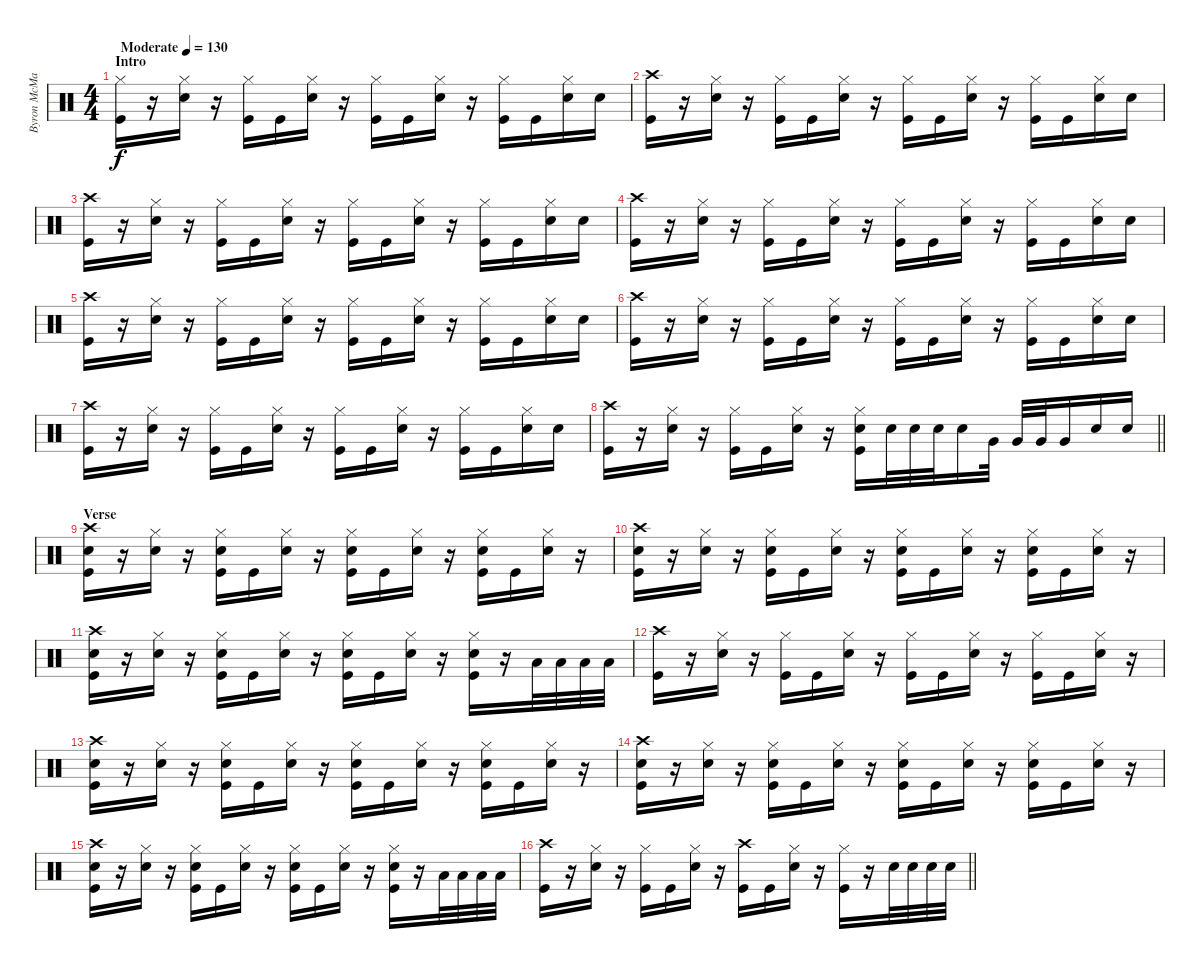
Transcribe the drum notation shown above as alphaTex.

\track ("Byron McMackin" "Byron McMa") {instrument percussion}
\staff {score}
\articulation defaults
\ts (4 4)
\section ("" "Intro")
\tempo (130 "Moderate")
\clef neutral
\ks c
("Hi-Hat (closed)" "Kick (hit)").16{dy f} r.16 ("Hi-Hat (closed)" "Electric Snare (hit)").16 r.16 ("Hi-Hat (closed)" "Kick (hit)").16 "Kick (hit)".16 ("Hi-Hat (closed)" "Electric Snare (hit)").16 r.16 ("Hi-Hat (closed)" "Kick (hit)").16 "Kick (hit)".16 ("Hi-Hat (closed)" "Electric Snare (hit)").16 r.16 ("Hi-Hat (closed)" "Kick (hit)").16 "Kick (hit)".16 ("Hi-Hat (closed)" "Electric Snare (hit)").16 "Electric Snare (hit)".16 |
("Crash high (hit)" "Kick (hit)").16 r.16 ("Hi-Hat (closed)" "Electric Snare (hit)").16 r.16 ("Hi-Hat (closed)" "Kick (hit)").16 "Kick (hit)".16 ("Hi-Hat (closed)" "Electric Snare (hit)").16 r.16 ("Hi-Hat (closed)" "Kick (hit)").16 "Kick (hit)".16 ("Hi-Hat (closed)" "Electric Snare (hit)").16 r.16 ("Hi-Hat (closed)" "Kick (hit)").16 "Kick (hit)".16 ("Hi-Hat (closed)" "Electric Snare (hit)").16 "Electric Snare (hit)".16 |
("Crash high (hit)" "Kick (hit)").16 r.16 ("Hi-Hat (closed)" "Electric Snare (hit)").16 r.16 ("Hi-Hat (closed)" "Kick (hit)").16 "Kick (hit)".16 ("Hi-Hat (closed)" "Electric Snare (hit)").16 r.16 ("Hi-Hat (closed)" "Kick (hit)").16 "Kick (hit)".16 ("Hi-Hat (closed)" "Electric Snare (hit)").16 r.16 ("Hi-Hat (closed)" "Kick (hit)").16 "Kick (hit)".16 ("Hi-Hat (closed)" "Electric Snare (hit)").16 "Electric Snare (hit)".16 |
("Crash high (hit)" "Kick (hit)").16 r.16 ("Hi-Hat (closed)" "Electric Snare (hit)").16 r.16 ("Hi-Hat (closed)" "Kick (hit)").16 "Kick (hit)".16 ("Hi-Hat (closed)" "Electric Snare (hit)").16 r.16 ("Hi-Hat (closed)" "Kick (hit)").16 "Kick (hit)".16 ("Hi-Hat (closed)" "Electric Snare (hit)").16 r.16 ("Hi-Hat (closed)" "Kick (hit)").16 "Kick (hit)".16 ("Hi-Hat (closed)" "Electric Snare (hit)").16 "Electric Snare (hit)".16 |
("Crash high (hit)" "Kick (hit)").16 r.16 ("Hi-Hat (closed)" "Electric Snare (hit)").16 r.16 ("Hi-Hat (closed)" "Kick (hit)").16 "Kick (hit)".16 ("Hi-Hat (closed)" "Electric Snare (hit)").16 r.16 ("Hi-Hat (closed)" "Kick (hit)").16 "Kick (hit)".16 ("Hi-Hat (closed)" "Electric Snare (hit)").16 r.16 ("Hi-Hat (closed)" "Kick (hit)").16 "Kick (hit)".16 ("Hi-Hat (closed)" "Electric Snare (hit)").16 "Electric Snare (hit)".16 |
("Crash high (hit)" "Kick (hit)").16 r.16 ("Hi-Hat (closed)" "Electric Snare (hit)").16 r.16 ("Hi-Hat (closed)" "Kick (hit)").16 "Kick (hit)".16 ("Hi-Hat (closed)" "Electric Snare (hit)").16 r.16 ("Hi-Hat (closed)" "Kick (hit)").16 "Kick (hit)".16 ("Hi-Hat (closed)" "Electric Snare (hit)").16 r.16 ("Hi-Hat (closed)" "Kick (hit)").16 "Kick (hit)".16 ("Hi-Hat (closed)" "Electric Snare (hit)").16 "Electric Snare (hit)".16 |
("Crash high (hit)" "Kick (hit)").16 r.16 ("Hi-Hat (closed)" "Electric Snare (hit)").16 r.16 ("Hi-Hat (closed)" "Kick (hit)").16 "Kick (hit)".16 ("Hi-Hat (closed)" "Electric Snare (hit)").16 r.16 ("Hi-Hat (closed)" "Kick (hit)").16 "Kick (hit)".16 ("Hi-Hat (closed)" "Electric Snare (hit)").16 r.16 ("Hi-Hat (closed)" "Kick (hit)").16 "Kick (hit)".16 ("Hi-Hat (closed)" "Electric Snare (hit)").16 "Electric Snare (hit)".16 |
\barLineRight lightlight
("Crash high (hit)" "Kick (hit)").16 r.16 ("Hi-Hat (closed)" "Electric Snare (hit)").16 r.16 ("Hi-Hat (closed)" "Kick (hit)").16 "Kick (hit)".16 ("Hi-Hat (closed)" "Electric Snare (hit)").16 r.16 ("Hi-Hat (closed)" "Electric Snare (hit)" "Kick (hit)").16 "Electric Snare (hit)".32 "Electric Snare (hit)".32 "Electric Snare (hit)".32 "Electric Snare (hit)".16 "Very Low Tom (hit)".32 "Very Low Tom (hit)".32 "Very Low Tom (hit)".32 "Very Low Tom (hit)".16 "Electric Snare (hit)".16 "Electric Snare (hit)".16 |
\section ("" "Verse")
("Crash high (hit)" "Electric Snare (hit)" "Kick (hit)").16 r.16 ("Hi-Hat (closed)" "Electric Snare (hit)").16 r.16 ("Hi-Hat (closed)" "Electric Snare (hit)" "Kick (hit)").16 "Kick (hit)".16 ("Hi-Hat (closed)" "Electric Snare (hit)").16 r.16 ("Hi-Hat (closed)" "Electric Snare (hit)" "Kick (hit)").16 "Kick (hit)".16 ("Hi-Hat (closed)" "Electric Snare (hit)").16 r.16 ("Hi-Hat (closed)" "Electric Snare (hit)" "Kick (hit)").16 "Kick (hit)".16 ("Hi-Hat (closed)" "Electric Snare (hit)").16 r.16 |
("Crash high (hit)" "Electric Snare (hit)" "Kick (hit)").16 r.16 ("Hi-Hat (closed)" "Electric Snare (hit)").16 r.16 ("Hi-Hat (closed)" "Electric Snare (hit)" "Kick (hit)").16 "Kick (hit)".16 ("Hi-Hat (closed)" "Electric Snare (hit)").16 r.16 ("Hi-Hat (closed)" "Electric Snare (hit)" "Kick (hit)").16 "Kick (hit)".16 ("Hi-Hat (closed)" "Electric Snare (hit)").16 r.16 ("Hi-Hat (closed)" "Electric Snare (hit)" "Kick (hit)").16 "Kick (hit)".16 ("Hi-Hat (closed)" "Electric Snare (hit)").16 r.16 |
("Crash high (hit)" "Electric Snare (hit)" "Kick (hit)").16 r.16 ("Hi-Hat (closed)" "Electric Snare (hit)").16 r.16 ("Hi-Hat (closed)" "Electric Snare (hit)" "Kick (hit)").16 "Kick (hit)".16 ("Hi-Hat (closed)" "Electric Snare (hit)").16 r.16 ("Hi-Hat (closed)" "Electric Snare (hit)" "Kick (hit)").16 "Kick (hit)".16 ("Hi-Hat (closed)" "Electric Snare (hit)").16 r.16 ("Hi-Hat (closed)" "Electric Snare (hit)" "Kick (hit)").16 r.16 "Low Tom (hit)".32 "Low Tom (hit)".32 "Low Tom (hit)".32 "Low Tom (hit)".32 |
("Crash high (hit)" "Kick (hit)").16 r.16 ("Hi-Hat (closed)" "Electric Snare (hit)").16 r.16 ("Hi-Hat (closed)" "Kick (hit)").16 "Kick (hit)".16 ("Hi-Hat (closed)" "Electric Snare (hit)").16 r.16 ("Hi-Hat (closed)" "Kick (hit)").16 "Kick (hit)".16 ("Hi-Hat (closed)" "Electric Snare (hit)").16 r.16 ("Hi-Hat (closed)" "Kick (hit)").16 "Kick (hit)".16 ("Hi-Hat (closed)" "Electric Snare (hit)").16 r.16 |
("Crash high (hit)" "Electric Snare (hit)" "Kick (hit)").16 r.16 ("Hi-Hat (closed)" "Electric Snare (hit)").16 r.16 ("Hi-Hat (closed)" "Electric Snare (hit)" "Kick (hit)").16 "Kick (hit)".16 ("Hi-Hat (closed)" "Electric Snare (hit)").16 r.16 ("Hi-Hat (closed)" "Electric Snare (hit)" "Kick (hit)").16 "Kick (hit)".16 ("Hi-Hat (closed)" "Electric Snare (hit)").16 r.16 ("Hi-Hat (closed)" "Electric Snare (hit)" "Kick (hit)").16 "Kick (hit)".16 ("Hi-Hat (closed)" "Electric Snare (hit)").16 r.16 |
("Crash high (hit)" "Electric Snare (hit)" "Kick (hit)").16 r.16 ("Hi-Hat (closed)" "Electric Snare (hit)").16 r.16 ("Hi-Hat (closed)" "Electric Snare (hit)" "Kick (hit)").16 "Kick (hit)".16 ("Hi-Hat (closed)" "Electric Snare (hit)").16 r.16 ("Hi-Hat (closed)" "Electric Snare (hit)" "Kick (hit)").16 "Kick (hit)".16 ("Hi-Hat (closed)" "Electric Snare (hit)").16 r.16 ("Hi-Hat (closed)" "Electric Snare (hit)" "Kick (hit)").16 "Kick (hit)".16 ("Hi-Hat (closed)" "Electric Snare (hit)").16 r.16 |
("Crash high (hit)" "Electric Snare (hit)" "Kick (hit)").16 r.16 ("Hi-Hat (closed)" "Electric Snare (hit)").16 r.16 ("Hi-Hat (closed)" "Electric Snare (hit)" "Kick (hit)").16 "Kick (hit)".16 ("Hi-Hat (closed)" "Electric Snare (hit)").16 r.16 ("Hi-Hat (closed)" "Electric Snare (hit)" "Kick (hit)").16 "Kick (hit)".16 ("Hi-Hat (closed)" "Electric Snare (hit)").16 r.16 ("Hi-Hat (closed)" "Electric Snare (hit)" "Kick (hit)").16 r.16 "Low Tom (hit)".32 "Low Tom (hit)".32 "Low Tom (hit)".32 "Low Tom (hit)".32 |
\barLineRight lightlight
("Crash high (hit)" "Kick (hit)").16 r.16 ("Hi-Hat (closed)" "Electric Snare (hit)").16 r.16 ("Hi-Hat (closed)" "Kick (hit)").16 "Kick (hit)".16 ("Hi-Hat (closed)" "Electric Snare (hit)").16 r.16 ("Crash high (hit)" "Kick (hit)").16 "Kick (hit)".16 ("Hi-Hat (closed)" "Electric Snare (hit)").16 r.16 ("Hi-Hat (closed)" "Kick (hit)").16 r.16 "Electric Snare (hit)".32 "Electric Snare (hit)".32 "Electric Snare (hit)".32 "Electric Snare (hit)".32
